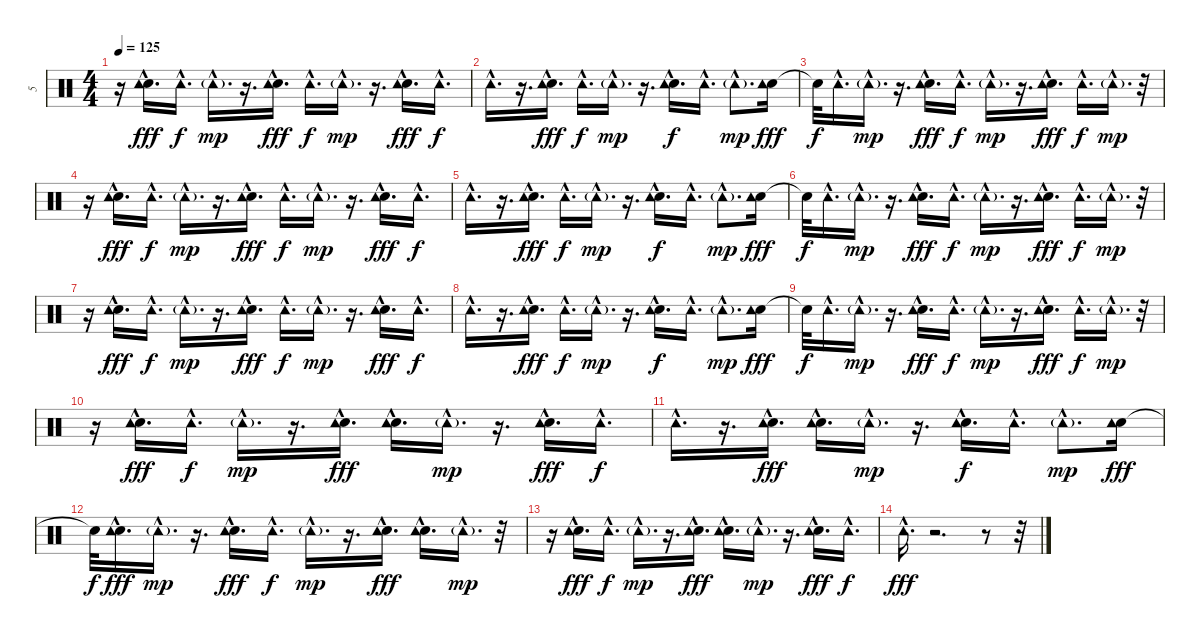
\track ("5" "5") {instrument percussion}
\staff {score}
\articulation defaults
\ts (4 4)
\tempo 125
\clef neutral
\ks c
r.16{dy mp} ("Electric Snare (hit)"{hac} "Tambourine (hit)"{hac}).16{d dy fff} "Tambourine (hit)"{hac}.16{d dy f} "Tambourine (hit)"{g hac}.16{d dy mp} r.16{d} ("Electric Snare (hit)"{hac} "Tambourine (hit)"{hac}).16{d dy fff} "Tambourine (hit)"{hac}.16{d dy f} "Tambourine (hit)"{g hac}.16{d dy mp} r.16{d} ("Electric Snare (hit)"{hac} "Tambourine (hit)"{hac}).16{d dy fff} "Tambourine (hit)"{hac}.16{d dy f} |
"Tambourine (hit)"{hac}.16{d} r.16{d} ("Electric Snare (hit)"{hac} "Tambourine (hit)"{hac}).16{d dy fff} "Tambourine (hit)"{hac}.16{d dy f} "Tambourine (hit)"{g hac}.16{d dy mp} r.16{d} ("Electric Snare (hit)"{hac} "Tambourine (hit)"{hac}).16{d dy f} "Tambourine (hit)"{hac}.16{d} "Tambourine (hit)"{g hac}.8{d dy mp} ("Electric Snare (hit)" "Tambourine (hit)").16{dy fff} |
"Snare (hit)"{t}.32{dy f} "Tambourine (hit)"{hac}.16{d} "Tambourine (hit)"{g hac}.16{d dy mp} r.16{d} ("Electric Snare (hit)"{hac} "Tambourine (hit)"{hac}).16{d dy fff} "Tambourine (hit)"{hac}.16{d dy f} "Tambourine (hit)"{g hac}.16{d dy mp} r.16{d} ("Electric Snare (hit)"{hac} "Tambourine (hit)"{hac}).16{d dy fff} "Tambourine (hit)"{hac}.16{d dy f} "Tambourine (hit)"{g hac}.16{d dy mp} r.32 |
r.16 ("Electric Snare (hit)"{hac} "Tambourine (hit)"{hac}).16{d dy fff} "Tambourine (hit)"{hac}.16{d dy f} "Tambourine (hit)"{g hac}.16{d dy mp} r.16{d} ("Electric Snare (hit)"{hac} "Tambourine (hit)"{hac}).16{d dy fff} "Tambourine (hit)"{hac}.16{d dy f} "Tambourine (hit)"{g hac}.16{d dy mp} r.16{d} ("Electric Snare (hit)"{hac} "Tambourine (hit)"{hac}).16{d dy fff} "Tambourine (hit)"{hac}.16{d dy f} |
"Tambourine (hit)"{hac}.16{d} r.16{d} ("Electric Snare (hit)"{hac} "Tambourine (hit)"{hac}).16{d dy fff} "Tambourine (hit)"{hac}.16{d dy f} "Tambourine (hit)"{g hac}.16{d dy mp} r.16{d} ("Electric Snare (hit)"{hac} "Tambourine (hit)"{hac}).16{d dy f} "Tambourine (hit)"{hac}.16{d} "Tambourine (hit)"{g hac}.8{d dy mp} ("Electric Snare (hit)" "Tambourine (hit)").16{dy fff} |
"Snare (hit)"{t}.32{dy f} "Tambourine (hit)"{hac}.16{d} "Tambourine (hit)"{g hac}.16{d dy mp} r.16{d} ("Electric Snare (hit)"{hac} "Tambourine (hit)"{hac}).16{d dy fff} "Tambourine (hit)"{hac}.16{d dy f} "Tambourine (hit)"{g hac}.16{d dy mp} r.16{d} ("Electric Snare (hit)"{hac} "Tambourine (hit)"{hac}).16{d dy fff} "Tambourine (hit)"{hac}.16{d dy f} "Tambourine (hit)"{g hac}.16{d dy mp} r.32 |
r.16 ("Electric Snare (hit)"{hac} "Tambourine (hit)"{hac}).16{d dy fff} "Tambourine (hit)"{hac}.16{d dy f} "Tambourine (hit)"{g hac}.16{d dy mp} r.16{d} ("Electric Snare (hit)"{hac} "Tambourine (hit)"{hac}).16{d dy fff} "Tambourine (hit)"{hac}.16{d dy f} "Tambourine (hit)"{g hac}.16{d dy mp} r.16{d} ("Electric Snare (hit)"{hac} "Tambourine (hit)"{hac}).16{d dy fff} "Tambourine (hit)"{hac}.16{d dy f} |
"Tambourine (hit)"{hac}.16{d} r.16{d} ("Electric Snare (hit)"{hac} "Tambourine (hit)"{hac}).16{d dy fff} "Tambourine (hit)"{hac}.16{d dy f} "Tambourine (hit)"{g hac}.16{d dy mp} r.16{d} ("Electric Snare (hit)"{hac} "Tambourine (hit)"{hac}).16{d dy f} "Tambourine (hit)"{hac}.16{d} "Tambourine (hit)"{g hac}.8{d dy mp} ("Electric Snare (hit)" "Tambourine (hit)").16{dy fff} |
"Snare (hit)"{t}.32{dy f} "Tambourine (hit)"{hac}.16{d} "Tambourine (hit)"{g hac}.16{d dy mp} r.16{d} ("Electric Snare (hit)"{hac} "Tambourine (hit)"{hac}).16{d dy fff} "Tambourine (hit)"{hac}.16{d dy f} "Tambourine (hit)"{g hac}.16{d dy mp} r.16{d} ("Electric Snare (hit)"{hac} "Tambourine (hit)"{hac}).16{d dy fff} "Tambourine (hit)"{hac}.16{d dy f} "Tambourine (hit)"{g hac}.16{d dy mp} r.32 |
r.16 ("Electric Snare (hit)"{hac} "Tambourine (hit)"{hac}).16{d dy fff} "Tambourine (hit)"{hac}.16{d dy f} "Tambourine (hit)"{g hac}.16{d dy mp} r.16{d} ("Electric Snare (hit)"{hac} "Tambourine (hit)"{hac}).16{d dy fff} ("Electric Snare (hit)"{hac} "Tambourine (hit)"{hac}).16{d} "Tambourine (hit)"{g hac}.16{d dy mp} r.16{d} ("Electric Snare (hit)"{hac} "Tambourine (hit)"{hac}).16{d dy fff} "Tambourine (hit)"{hac}.16{d dy f} |
"Tambourine (hit)"{hac}.16{d} r.16{d} ("Electric Snare (hit)"{hac} "Tambourine (hit)"{hac}).16{d dy fff} ("Electric Snare (hit)"{hac} "Tambourine (hit)"{hac}).16{d} "Tambourine (hit)"{g hac}.16{d dy mp} r.16{d} ("Electric Snare (hit)"{hac} "Tambourine (hit)"{hac}).16{d dy f} "Tambourine (hit)"{hac}.16{d} "Tambourine (hit)"{g hac}.8{d dy mp} ("Electric Snare (hit)" "Tambourine (hit)").16{dy fff} |
"Snare (hit)"{t}.32{dy f} ("Electric Snare (hit)"{hac} "Tambourine (hit)"{hac}).16{d dy fff} "Tambourine (hit)"{g hac}.16{d dy mp} r.16{d} ("Electric Snare (hit)"{hac} "Tambourine (hit)"{hac}).16{d dy fff} "Tambourine (hit)"{hac}.16{d dy f} "Tambourine (hit)"{g hac}.16{d dy mp} r.16{d} ("Electric Snare (hit)"{hac} "Tambourine (hit)"{hac}).16{d dy fff} ("Electric Snare (hit)"{hac} "Tambourine (hit)"{hac}).16{d} "Tambourine (hit)"{g hac}.16{d dy mp} r.32 |
r.16 ("Electric Snare (hit)"{hac} "Tambourine (hit)"{hac}).16{d dy fff} "Tambourine (hit)"{hac}.16{d dy f} "Tambourine (hit)"{g hac}.16{d dy mp} r.16{d} ("Electric Snare (hit)"{hac} "Tambourine (hit)"{hac}).16{d dy fff} ("Electric Snare (hit)"{hac} "Tambourine (hit)"{hac}).16{d} "Tambourine (hit)"{g hac}.16{d dy mp} r.16{d} ("Electric Snare (hit)"{hac} "Tambourine (hit)"{hac}).16{d dy fff} "Tambourine (hit)"{hac}.16{d dy f} |
"Tambourine (hit)"{hac}.16{d dy fff} r.2{d} r.8 r.32
